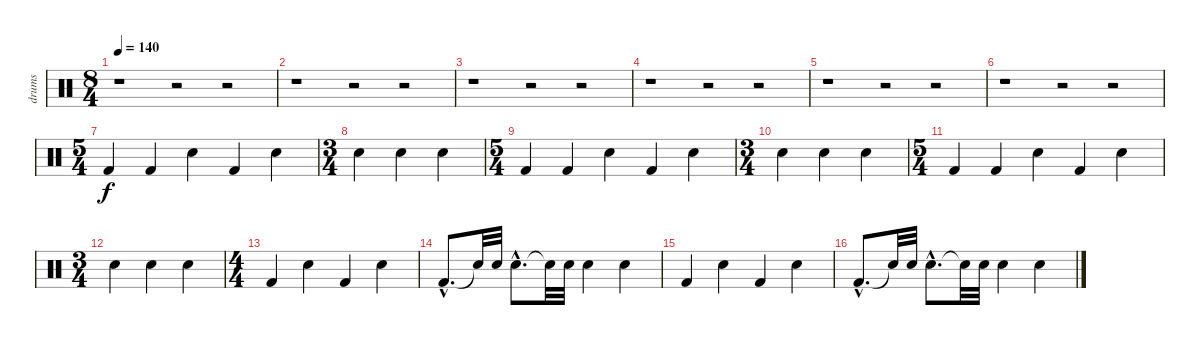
\track ("drums" "drums") {instrument percussion}
\staff {score}
\articulation defaults
\ts (8 4)
\tempo 140
\clef neutral
\ks c
r.1{dy f} r.2 r.2 |
r.1 r.2 r.2 |
r.1 r.2 r.2 |
r.1 r.2 r.2 |
r.1 r.2 r.2 |
r.1 r.2 r.2 |
\ts (5 4)
"Kick (hit) 2".4 "Kick (hit) 2".4 "Snare (hit) 2".4 "Kick (hit) 2".4 "Snare (hit) 2".4 |
\ts (3 4)
"Electric Snare (hit)".4 "Snare (hit) 2".4 "Electric Snare (hit)".4 |
\ts (5 4)
"Kick (hit) 2".4 "Kick (hit) 2".4 "Snare (hit) 2".4 "Kick (hit) 2".4 "Snare (hit) 2".4 |
\ts (3 4)
"Electric Snare (hit)".4 "Snare (hit) 2".4 "Electric Snare (hit)".4 |
\ts (5 4)
"Kick (hit) 2".4 "Kick (hit) 2".4 "Snare (hit) 2".4 "Kick (hit) 2".4 "Snare (hit) 2".4 |
\ts (3 4)
"Electric Snare (hit)".4 "Snare (hit) 2".4 "Electric Snare (hit)".4 |
\ts (4 4)
"Kick (hit) 2".4 "Snare (hit) 2".4 "Kick (hit) 2".4 "Snare (hit) 2".4 |
"Kick (hit) 2"{hac}.8{d} "Snare (hit)"{t}.32 "Snare (hit) 2".32 "Snare (hit) 2"{hac}.8{d} "Snare (hit)"{t}.32 "Snare (hit) 2".32 "Snare (hit) 2".4 "Snare (hit) 2".4 |
"Kick (hit) 2".4 "Snare (hit) 2".4 "Kick (hit) 2".4 "Snare (hit) 2".4 |
"Kick (hit) 2"{hac}.8{d} "Snare (hit)"{t}.32 "Snare (hit) 2".32 "Snare (hit) 2"{hac}.8{d} "Snare (hit)"{t}.32 "Snare (hit) 2".32 "Snare (hit) 2".4 "Snare (hit) 2".4
